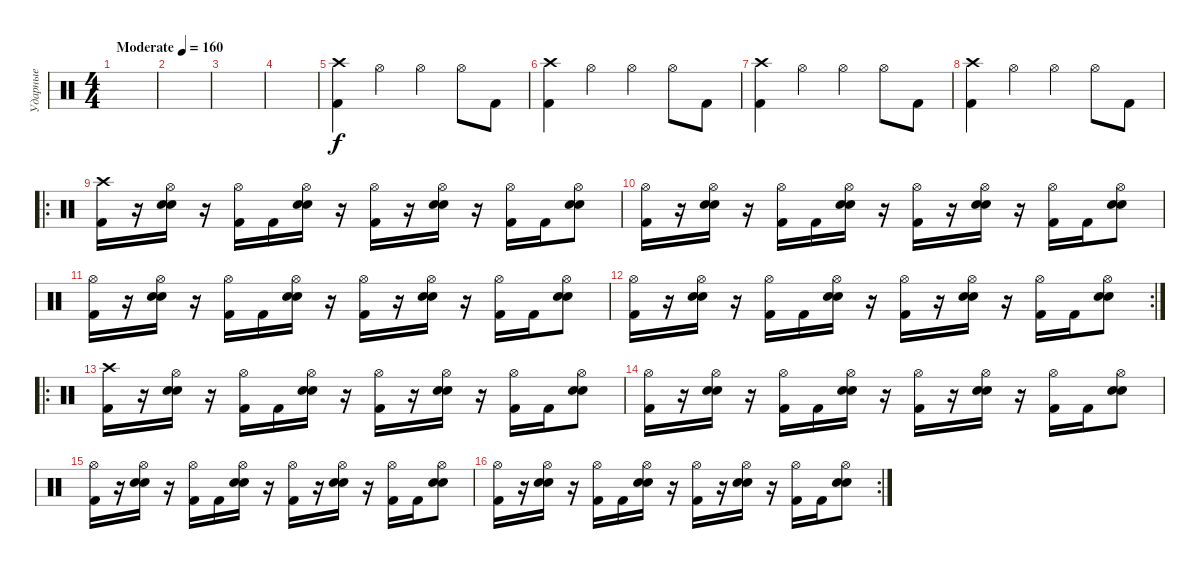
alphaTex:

\track ("Ударные" "Ударные") {instrument percussion}
\staff {score}
\articulation defaults
\ts (4 4)
\tempo (160 "Moderate")
\clef neutral
\ks c
|
|
|
|
("Kick (hit) 2" "Crash high (hit)").4 "Hi-Hat (open)".4 "Hi-Hat (open)".4 "Hi-Hat (open)".8 "Kick (hit) 2".8 |
("Kick (hit) 2" "Crash high (hit)").4 "Hi-Hat (open)".4 "Hi-Hat (open)".4 "Hi-Hat (open)".8 "Kick (hit) 2".8 |
("Kick (hit) 2" "Crash high (hit)").4 "Hi-Hat (open)".4 "Hi-Hat (open)".4 "Hi-Hat (open)".8 "Kick (hit) 2".8 |
("Kick (hit) 2" "Crash high (hit)").4 "Hi-Hat (open)".4 "Hi-Hat (open)".4 "Hi-Hat (open)".8 "Kick (hit) 2".8 |
\ro
("Crash high (hit)" "Kick (hit) 2").16 r.16 ("Hi-Hat (open)" "Electric Snare (hit)" "Snare (hit) 2").16 r.16 ("Hi-Hat (open)" "Kick (hit) 2").16 "Kick (hit) 2".16 ("Hi-Hat (open)" "Electric Snare (hit)" "Snare (hit) 2").16 r.16 ("Hi-Hat (open)" "Kick (hit) 2").16 r.16 ("Hi-Hat (open)" "Electric Snare (hit)" "Snare (hit) 2").16 r.16 ("Hi-Hat (open)" "Kick (hit) 2").16 "Kick (hit) 2".16 ("Hi-Hat (open)" "Electric Snare (hit)" "Snare (hit) 2").8 |
("Hi-Hat (open)" "Kick (hit) 2").16 r.16 ("Hi-Hat (open)" "Electric Snare (hit)" "Snare (hit) 2").16 r.16 ("Hi-Hat (open)" "Kick (hit) 2").16 "Kick (hit) 2".16 ("Hi-Hat (open)" "Electric Snare (hit)" "Snare (hit) 2").16 r.16 ("Hi-Hat (open)" "Kick (hit) 2").16 r.16 ("Hi-Hat (open)" "Electric Snare (hit)" "Snare (hit) 2").16 r.16 ("Hi-Hat (open)" "Kick (hit) 2").16 "Kick (hit) 2".16 ("Hi-Hat (open)" "Electric Snare (hit)" "Snare (hit) 2").8 |
("Hi-Hat (open)" "Kick (hit) 2").16 r.16 ("Hi-Hat (open)" "Electric Snare (hit)" "Snare (hit) 2").16 r.16 ("Hi-Hat (open)" "Kick (hit) 2").16 "Kick (hit) 2".16 ("Hi-Hat (open)" "Electric Snare (hit)" "Snare (hit) 2").16 r.16 ("Hi-Hat (open)" "Kick (hit) 2").16 r.16 ("Hi-Hat (open)" "Electric Snare (hit)" "Snare (hit) 2").16 r.16 ("Hi-Hat (open)" "Kick (hit) 2").16 "Kick (hit) 2".16 ("Hi-Hat (open)" "Electric Snare (hit)" "Snare (hit) 2").8 |
\rc 2
("Hi-Hat (open)" "Kick (hit) 2").16 r.16 ("Hi-Hat (open)" "Electric Snare (hit)" "Snare (hit) 2").16 r.16 ("Hi-Hat (open)" "Kick (hit) 2").16 "Kick (hit) 2".16 ("Hi-Hat (open)" "Electric Snare (hit)" "Snare (hit) 2").16 r.16 ("Hi-Hat (open)" "Kick (hit) 2").16 r.16 ("Hi-Hat (open)" "Electric Snare (hit)" "Snare (hit) 2").16 r.16 ("Hi-Hat (open)" "Kick (hit) 2").16 "Kick (hit) 2".16 ("Hi-Hat (open)" "Electric Snare (hit)" "Snare (hit) 2").8 |
\ro
("Crash high (hit)" "Kick (hit) 2").16 r.16 ("Hi-Hat (open)" "Electric Snare (hit)" "Snare (hit) 2").16 r.16 ("Hi-Hat (open)" "Kick (hit) 2").16 "Kick (hit) 2".16 ("Hi-Hat (open)" "Electric Snare (hit)" "Snare (hit) 2").16 r.16 ("Hi-Hat (open)" "Kick (hit) 2").16 r.16 ("Hi-Hat (open)" "Electric Snare (hit)" "Snare (hit) 2").16 r.16 ("Hi-Hat (open)" "Kick (hit) 2").16 "Kick (hit) 2".16 ("Hi-Hat (open)" "Electric Snare (hit)" "Snare (hit) 2").8 |
("Hi-Hat (open)" "Kick (hit) 2").16 r.16 ("Hi-Hat (open)" "Electric Snare (hit)" "Snare (hit) 2").16 r.16 ("Hi-Hat (open)" "Kick (hit) 2").16 "Kick (hit) 2".16 ("Hi-Hat (open)" "Electric Snare (hit)" "Snare (hit) 2").16 r.16 ("Hi-Hat (open)" "Kick (hit) 2").16 r.16 ("Hi-Hat (open)" "Electric Snare (hit)" "Snare (hit) 2").16 r.16 ("Hi-Hat (open)" "Kick (hit) 2").16 "Kick (hit) 2".16 ("Hi-Hat (open)" "Electric Snare (hit)" "Snare (hit) 2").8 |
("Hi-Hat (open)" "Kick (hit) 2").16 r.16 ("Hi-Hat (open)" "Electric Snare (hit)" "Snare (hit) 2").16 r.16 ("Hi-Hat (open)" "Kick (hit) 2").16 "Kick (hit) 2".16 ("Hi-Hat (open)" "Electric Snare (hit)" "Snare (hit) 2").16 r.16 ("Hi-Hat (open)" "Kick (hit) 2").16 r.16 ("Hi-Hat (open)" "Electric Snare (hit)" "Snare (hit) 2").16 r.16 ("Hi-Hat (open)" "Kick (hit) 2").16 "Kick (hit) 2".16 ("Hi-Hat (open)" "Electric Snare (hit)" "Snare (hit) 2").8 |
\rc 2
("Hi-Hat (open)" "Kick (hit) 2").16 r.16 ("Hi-Hat (open)" "Electric Snare (hit)" "Snare (hit) 2").16 r.16 ("Hi-Hat (open)" "Kick (hit) 2").16 "Kick (hit) 2".16 ("Hi-Hat (open)" "Electric Snare (hit)" "Snare (hit) 2").16 r.16 ("Hi-Hat (open)" "Kick (hit) 2").16 r.16 ("Hi-Hat (open)" "Electric Snare (hit)" "Snare (hit) 2").16 r.16 ("Hi-Hat (open)" "Kick (hit) 2").16 "Kick (hit) 2".16 ("Hi-Hat (open)" "Electric Snare (hit)" "Snare (hit) 2").8
